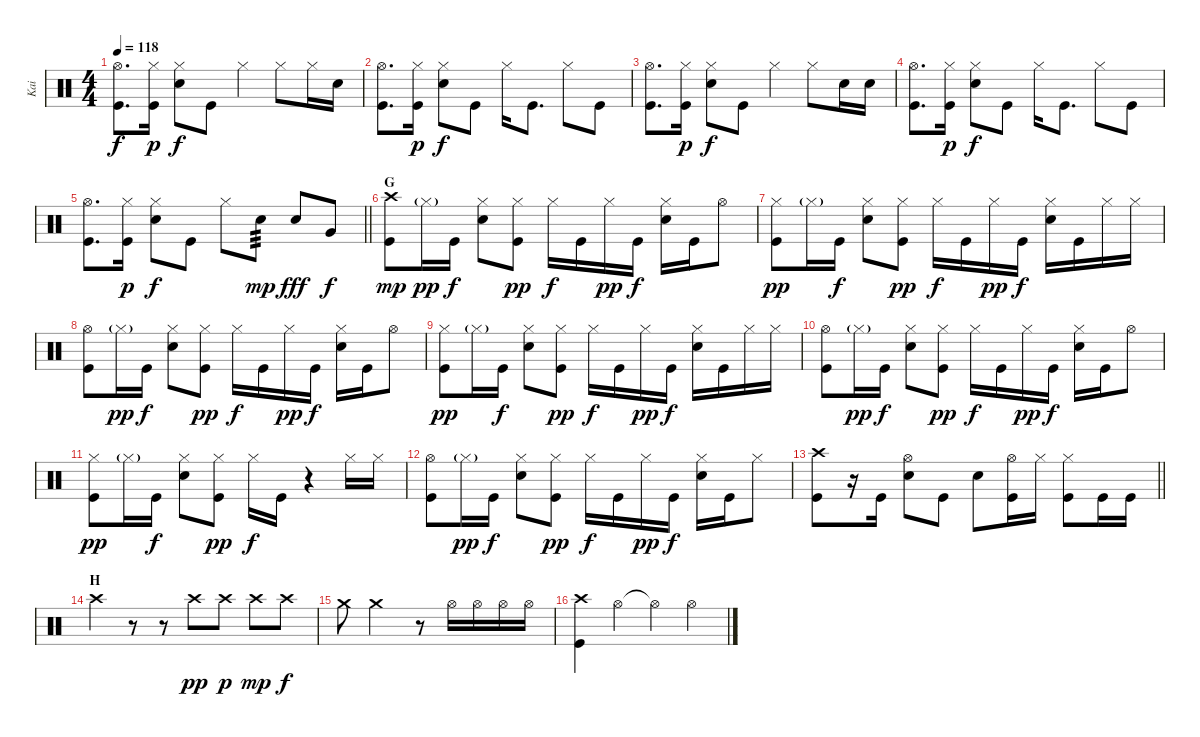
\track ("Kai" "Kai") {instrument percussion}
\staff {score}
\articulation defaults
\ts (4 4)
\tempo 118
\clef neutral
\ks c
("Hi-Hat (open)" "Kick (hit)").8{d dy f} ("Kick (hit)" "Hi-Hat (closed)").16{dy p} ("Hi-Hat (closed)" "Snare (hit) 2").8{dy f} "Kick (hit)".8 "Hi-Hat (closed)".4 "Hi-Hat (closed)".8 "Hi-Hat (closed)".16 "Snare (hit) 2".16 |
("Hi-Hat (open)" "Kick (hit)").8{d} ("Kick (hit)" "Hi-Hat (closed)").16{dy p} ("Hi-Hat (closed)" "Snare (hit) 2").8{dy f} "Kick (hit)".8 "Hi-Hat (closed)".16 "Kick (hit)".8{d} "Hi-Hat (closed)".8 "Kick (hit)".8 |
("Hi-Hat (open)" "Kick (hit)").8{d} ("Kick (hit)" "Hi-Hat (closed)").16{dy p} ("Hi-Hat (closed)" "Snare (hit) 2").8{dy f} "Kick (hit)".8 "Hi-Hat (closed)".4 "Hi-Hat (closed)".8 "Snare (hit) 2".16 "Snare (hit) 2".16 |
("Hi-Hat (open)" "Kick (hit)").8{d} ("Kick (hit)" "Hi-Hat (closed)").16{dy p} ("Hi-Hat (closed)" "Snare (hit) 2").8{dy f} "Kick (hit)".8 "Hi-Hat (closed)".16 "Kick (hit)".8{d} "Hi-Hat (closed)".8 "Kick (hit)".8 |
\barLineRight lightlight
("Hi-Hat (open)" "Kick (hit)").8{d} ("Kick (hit)" "Hi-Hat (closed)").16{dy p} ("Hi-Hat (closed)" "Snare (hit) 2").8{dy f} "Kick (hit)".8 "Hi-Hat (closed)".8 "Snare (hit) 2".8{tp 3 dy mp} "Snare (hit) 2".8{dy fff} "Very Low Tom (hit)".8{dy f} |
\section ("" "G")
("Crash high (hit)" "Kick (hit)").8{dy mp} "Hi-Hat (closed)"{g}.16{dy pp} "Kick (hit)".16{dy f} ("Hi-Hat (closed)" "Snare (hit) 2").8 ("Hi-Hat (closed)" "Kick (hit)").8{dy pp} "Hi-Hat (closed)".16{dy f} "Kick (hit)".16 "Hi-Hat (closed)".16{dy pp} "Kick (hit)".16{dy f} ("Hi-Hat (closed)" "Snare (hit) 2").16 "Kick (hit)".16 "Hi-Hat (open)".8 |
("Hi-Hat (closed)" "Kick (hit)").8{dy pp} "Hi-Hat (closed)"{g}.16 "Kick (hit)".16{dy f} ("Hi-Hat (closed)" "Snare (hit) 2").8 ("Hi-Hat (closed)" "Kick (hit)").8{dy pp} "Hi-Hat (closed)".16{dy f} "Kick (hit)".16 "Hi-Hat (closed)".16{dy pp} "Kick (hit)".16{dy f} ("Hi-Hat (closed)" "Snare (hit) 2").16 "Kick (hit)".16 "Hi-Hat (closed)".16 "Hi-Hat (closed)".16 |
("Kick (hit)" "Hi-Hat (open)").8 "Hi-Hat (closed)"{g}.16{dy pp} "Kick (hit)".16{dy f} ("Hi-Hat (closed)" "Snare (hit) 2").8 ("Hi-Hat (closed)" "Kick (hit)").8{dy pp} "Hi-Hat (closed)".16{dy f} "Kick (hit)".16 "Hi-Hat (closed)".16{dy pp} "Kick (hit)".16{dy f} ("Hi-Hat (closed)" "Snare (hit) 2").16 "Kick (hit)".16 "Hi-Hat (open)".8 |
("Hi-Hat (closed)" "Kick (hit)").8{dy pp} "Hi-Hat (closed)"{g}.16 "Kick (hit)".16{dy f} ("Hi-Hat (closed)" "Snare (hit) 2").8 ("Hi-Hat (closed)" "Kick (hit)").8{dy pp} "Hi-Hat (closed)".16{dy f} "Kick (hit)".16 "Hi-Hat (closed)".16{dy pp} "Kick (hit)".16{dy f} ("Hi-Hat (closed)" "Snare (hit) 2").16 "Kick (hit)".16 "Hi-Hat (closed)".16 "Hi-Hat (closed)".16 |
("Kick (hit)" "Hi-Hat (open)").8 "Hi-Hat (closed)"{g}.16{dy pp} "Kick (hit)".16{dy f} ("Hi-Hat (closed)" "Snare (hit) 2").8 ("Hi-Hat (closed)" "Kick (hit)").8{dy pp} "Hi-Hat (closed)".16{dy f} "Kick (hit)".16 "Hi-Hat (closed)".16{dy pp} "Kick (hit)".16{dy f} ("Hi-Hat (closed)" "Snare (hit) 2").16 "Kick (hit)".16 "Hi-Hat (open)".8 |
("Hi-Hat (closed)" "Kick (hit)").8{dy pp} "Hi-Hat (closed)"{g}.16 "Kick (hit)".16{dy f} ("Hi-Hat (closed)" "Snare (hit) 2").8 ("Hi-Hat (closed)" "Kick (hit)").8{dy pp} "Hi-Hat (closed)".16{dy f} "Kick (hit)".16 r.4 "Hi-Hat (closed)".16 "Hi-Hat (closed)".16 |
("Kick (hit)" "Hi-Hat (open)").8 "Hi-Hat (closed)"{g}.16{dy pp} "Kick (hit)".16{dy f} ("Hi-Hat (closed)" "Snare (hit) 2").8 ("Hi-Hat (closed)" "Kick (hit)").8{dy pp} "Hi-Hat (closed)".16{dy f} "Kick (hit)".16 "Hi-Hat (closed)".16{dy pp} "Kick (hit)".16{dy f} ("Hi-Hat (closed)" "Snare (hit) 2").16 "Kick (hit)".16 "Hi-Hat (closed)".8 |
\barLineRight lightlight
("Crash high (hit)" "Kick (hit)").8 r.16 "Kick (hit)".16 ("Snare (hit) 2" "Hi-Hat (open)").8 "Kick (hit)".8 "Snare (hit) 2".8 ("Kick (hit)" "Hi-Hat (open)").16 "Hi-Hat (closed)".16 ("Kick (hit)" "Hi-Hat (closed)").8 "Kick (hit)".16 "Kick (hit)".16 |
\section ("" "H")
"Crash high (hit)".4 r.8 r.8 "Crash high (hit)".8{dy pp} "Crash high (hit)".8{dy p} "Crash high (hit)".8{dy mp} "Crash high (hit)".8{dy f balance 6} |
"Crash medium (hit)".8{balance 10} "Crash medium (hit)".2{balance 6} r.8{balance 8} "Hi-Hat (open)".16 "Hi-Hat (open)".16 "Hi-Hat (open)".16 "Hi-Hat (open)".16 |
("Crash high (hit)" "Kick (hit)").4 "Hi-Hat (open)".4 "Hi-Hat (open)"{t}.4 "Hi-Hat (open)".4
